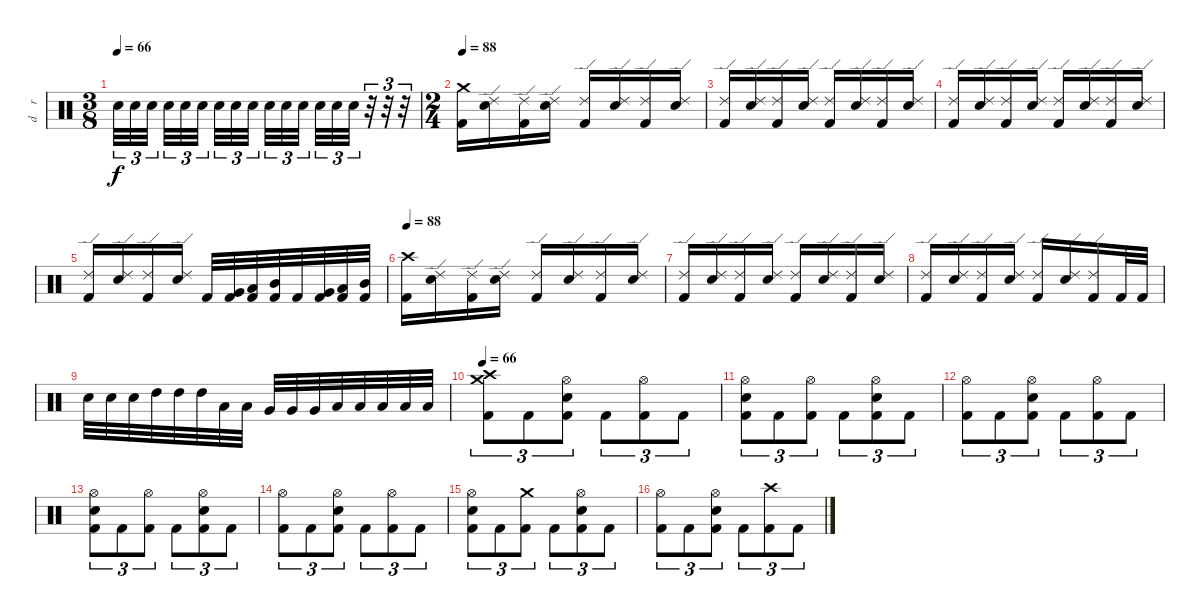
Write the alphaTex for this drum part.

\track ("d    r     u    m    s" "d    r    ") {instrument percussion}
\staff {score}
\articulation defaults
\ts (3 8)
\tempo 66
\clef neutral
\ks c "Snare (hit) 2".32{tu (3 2) dy f} "Snare (hit) 2".32{tu (3 2)} "Snare (hit) 2".32{tu (3 2) beam splitsecondary} "Snare (hit) 2".32{tu (3 2)} "Snare (hit) 2".32{tu (3 2)} "Snare (hit) 2".32{tu (3 2)} "Snare (hit) 2".32{tu (3 2)} "Snare (hit) 2".32{tu (3 2)} "Snare (hit) 2".32{tu (3 2) beam splitsecondary} "Snare (hit) 2".32{tu (3 2)} "Snare (hit) 2".32{tu (3 2)} "Snare (hit) 2".32{tu (3 2)} "Snare (hit) 2".32{tu (3 2)} "Snare (hit) 2".32{tu (3 2)} "Snare (hit) 2".32{tu (3 2)}
r.32{tu (3 2)} r.32{tu (3 2)} r.32{tu (3 2)} |
\ts (2 4)
\tempo 88
("Crash medium (hit)" "Kick (hit) 2").16 ("Ride (edge) 2" "Electric Snare (hit)").16 ("Ride (edge) 2" "Kick (hit) 2").16 ("Ride (edge) 2" "Electric Snare (hit)").16 ("Ride (edge) 2" "Kick (hit) 2").16 ("Ride (edge) 2" "Electric Snare (hit)").16 ("Ride (edge) 2" "Kick (hit) 2").16 ("Ride (edge) 2" "Electric Snare (hit)").16 |
("Ride (edge) 2" "Kick (hit) 2").16 ("Ride (edge) 2" "Electric Snare (hit)").16 ("Ride (edge) 2" "Kick (hit) 2").16 ("Ride (edge) 2" "Electric Snare (hit)").16 ("Ride (edge) 2" "Kick (hit) 2").16 ("Ride (edge) 2" "Electric Snare (hit)").16 ("Ride (edge) 2" "Kick (hit) 2").16 ("Ride (edge) 2" "Electric Snare (hit)").16 |
("Ride (edge) 2" "Kick (hit) 2").16 ("Ride (edge) 2" "Electric Snare (hit)").16 ("Ride (edge) 2" "Kick (hit) 2").16 ("Ride (edge) 2" "Electric Snare (hit)").16 ("Ride (edge) 2" "Kick (hit) 2").16 ("Ride (edge) 2" "Electric Snare (hit)").16 ("Ride (edge) 2" "Kick (hit) 2").16 ("Ride (edge) 2" "Electric Snare (hit)").16 |
("Ride (edge) 2" "Kick (hit) 2").16 ("Ride (edge) 2" "Electric Snare (hit)").16 ("Ride (edge) 2" "Kick (hit) 2").16 ("Ride (edge) 2" "Electric Snare (hit)").16 "Kick (hit) 2".32 ("Very Low Tom (hit)" "Kick (hit) 2").32 ("Low Tom (hit)" "Kick (hit) 2").32 ("Mid Tom (hit)" "Kick (hit) 2").32 "Kick (hit) 2".32 ("Very Low Tom (hit)" "Kick (hit) 2").32 ("Low Tom (hit)" "Kick (hit) 2").32 ("Mid Tom (hit)" "Kick (hit) 2").32 |
\tempo 88
("Crash high (hit)" "Kick (hit) 2").16 ("Ride (edge) 2" "Electric Snare (hit)").16 ("Ride (edge) 2" "Kick (hit) 2").16 ("Ride (edge) 2" "Electric Snare (hit)").16 ("Ride (edge) 2" "Kick (hit) 2").16 ("Ride (edge) 2" "Electric Snare (hit)").16 ("Ride (edge) 2" "Kick (hit) 2").16 ("Ride (edge) 2" "Electric Snare (hit)").16 |
("Ride (edge) 2" "Kick (hit) 2").16 ("Ride (edge) 2" "Electric Snare (hit)").16 ("Ride (edge) 2" "Kick (hit) 2").16 ("Ride (edge) 2" "Electric Snare (hit)").16 ("Ride (edge) 2" "Kick (hit) 2").16 ("Ride (edge) 2" "Electric Snare (hit)").16 ("Ride (edge) 2" "Kick (hit) 2").16 ("Ride (edge) 2" "Electric Snare (hit)").16 |
("Ride (edge) 2" "Kick (hit) 2").16 ("Ride (edge) 2" "Electric Snare (hit)").16 ("Ride (edge) 2" "Kick (hit) 2").16 ("Ride (edge) 2" "Electric Snare (hit)").16 ("Ride (edge) 2" "Kick (hit) 2").16 ("Ride (edge) 2" "Electric Snare (hit)").16 ("Ride (edge) 2" "Kick (hit) 2").16 "Kick (hit) 2".32 "Kick (hit) 2".32 |
"Electric Snare (hit)".32 "Electric Snare (hit)".32 "Electric Snare (hit)".32 "High Tom (hit)".32 "High Tom (hit)".32 "High Tom (hit)".32 "Low Tom (hit)".32 "Low Tom (hit)".32 "Very Low Tom (hit)".32 "Very Low Tom (hit)".32 "Very Low Tom (hit)".32 "Low Floor Tom (hit)".32 "Low Floor Tom (hit)".32 "Low Floor Tom (hit)".32 "Low Floor Tom (hit)".32 "Low Floor Tom (hit)".32 |
\tempo 66
("Crash high (hit)" "Crash medium (hit)" "Kick (hit) 2").8{tu (3 2)} "Kick (hit) 2".8{tu (3 2)} ("Hi-Hat (open)" "Snare (hit) 2" "Kick (hit) 2").8{tu (3 2)} "Kick (hit) 2".8{tu (3 2)} ("Hi-Hat (open)" "Kick (hit) 2").8{tu (3 2)} "Kick (hit) 2".8{tu (3 2)} |
("Hi-Hat (open)" "Snare (hit) 2" "Kick (hit) 2").8{tu (3 2)} "Kick (hit) 2".8{tu (3 2)} ("Hi-Hat (open)" "Kick (hit) 2").8{tu (3 2)} "Kick (hit) 2".8{tu (3 2)} ("Hi-Hat (open)" "Snare (hit) 2" "Kick (hit) 2").8{tu (3 2)} "Kick (hit) 2".8{tu (3 2)} |
("Hi-Hat (open)" "Kick (hit) 2").8{tu (3 2)} "Kick (hit) 2".8{tu (3 2)} ("Hi-Hat (open)" "Snare (hit) 2" "Kick (hit) 2").8{tu (3 2)} "Kick (hit) 2".8{tu (3 2)} ("Hi-Hat (open)" "Kick (hit) 2").8{tu (3 2)} "Kick (hit) 2".8{tu (3 2)} |
("Hi-Hat (open)" "Snare (hit) 2" "Kick (hit) 2").8{tu (3 2)} "Kick (hit) 2".8{tu (3 2)} ("Hi-Hat (open)" "Kick (hit) 2").8{tu (3 2)} "Kick (hit) 2".8{tu (3 2)} ("Hi-Hat (open)" "Snare (hit) 2" "Kick (hit) 2").8{tu (3 2)} "Kick (hit) 2".8{tu (3 2)} |
("Hi-Hat (open)" "Kick (hit) 2").8{tu (3 2)} "Kick (hit) 2".8{tu (3 2)} ("Hi-Hat (open)" "Snare (hit) 2" "Kick (hit) 2").8{tu (3 2)} "Kick (hit) 2".8{tu (3 2)} ("Hi-Hat (open)" "Kick (hit) 2").8{tu (3 2)} "Kick (hit) 2".8{tu (3 2)} |
("Hi-Hat (open)" "Snare (hit) 2" "Kick (hit) 2").8{tu (3 2)} "Kick (hit) 2".8{tu (3 2)} ("Crash medium (hit)" "Kick (hit) 2").8{tu (3 2)} "Kick (hit) 2".8{tu (3 2)} ("Hi-Hat (open)" "Snare (hit) 2" "Kick (hit) 2").8{tu (3 2)} "Kick (hit) 2".8{tu (3 2)} |
("Hi-Hat (open)" "Kick (hit) 2").8{tu (3 2)} "Kick (hit) 2".8{tu (3 2)} ("Hi-Hat (open)" "Snare (hit) 2" "Kick (hit) 2").8{tu (3 2)} "Kick (hit) 2".8{tu (3 2)} ("Crash high (hit)" "Kick (hit) 2").8{tu (3 2)} "Kick (hit) 2".8{tu (3 2)}
